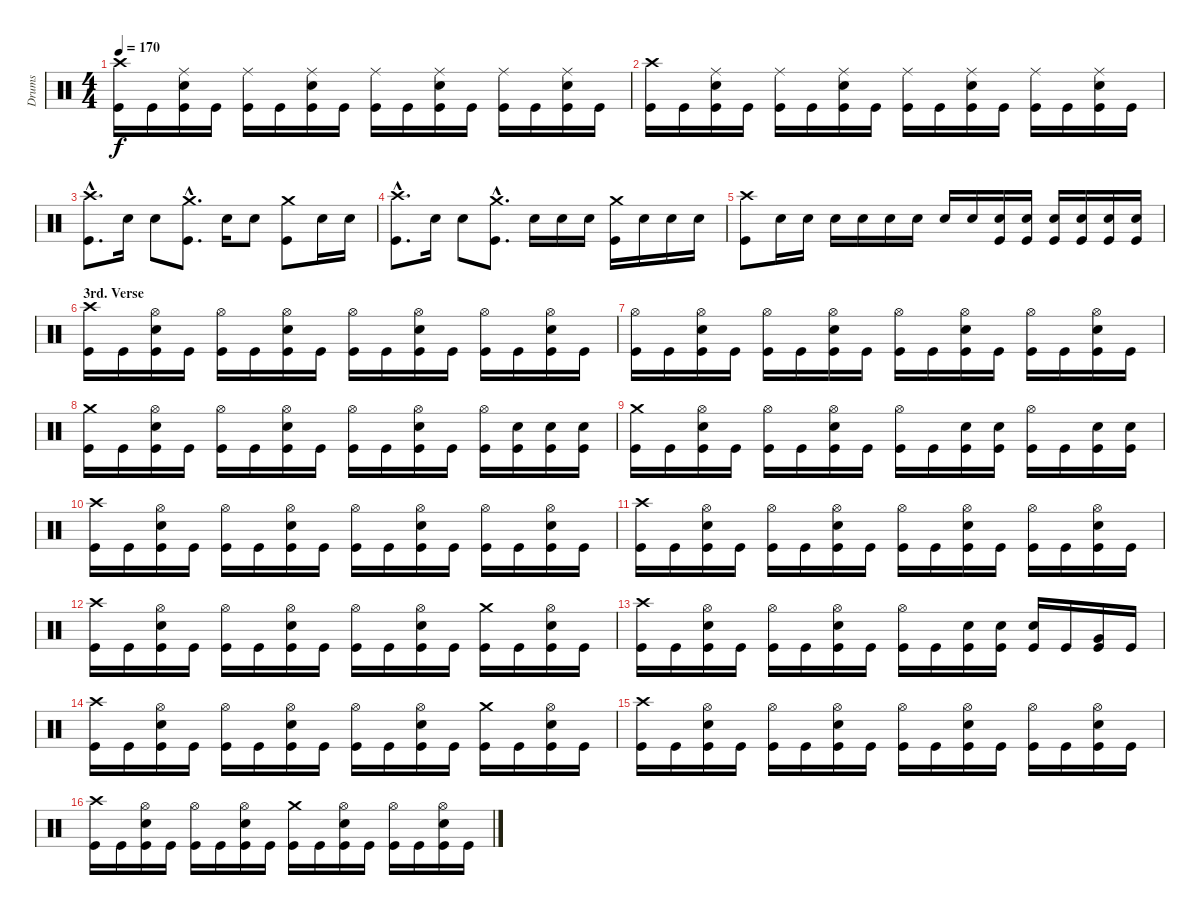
\track ("Drums" "Drums") {instrument percussion}
\staff {score}
\articulation defaults
\ts (4 4)
\tempo 170
\clef neutral
\ks c
("Crash high (hit)" "Kick (hit)").16{dy f} "Kick (hit)".16 ("Ride (middle)" "Electric Snare (hit)" "Kick (hit)").16 "Kick (hit)".16 ("Ride (middle)" "Kick (hit)").16 "Kick (hit)".16 ("Ride (middle)" "Electric Snare (hit)" "Kick (hit)").16 "Kick (hit)".16 ("Ride (middle)" "Kick (hit)").16 "Kick (hit)".16 ("Ride (middle)" "Electric Snare (hit)" "Kick (hit)").16 "Kick (hit)".16 ("Ride (middle)" "Kick (hit)").16 "Kick (hit)".16 ("Ride (middle)" "Electric Snare (hit)" "Kick (hit)").16 "Kick (hit)".16 |
("Crash high (hit)" "Kick (hit)").16 "Kick (hit)".16 ("Ride (middle)" "Electric Snare (hit)" "Kick (hit)").16 "Kick (hit)".16 ("Ride (middle)" "Kick (hit)").16 "Kick (hit)".16 ("Ride (middle)" "Electric Snare (hit)" "Kick (hit)").16 "Kick (hit)".16 ("Ride (middle)" "Kick (hit)").16 "Kick (hit)".16 ("Ride (middle)" "Electric Snare (hit)" "Kick (hit)").16 "Kick (hit)".16 ("Ride (middle)" "Kick (hit)").16 "Kick (hit)".16 ("Ride (middle)" "Electric Snare (hit)" "Kick (hit)").16 "Kick (hit)".16 |
("Crash high (hit)"{hac} "Kick (hit)"{hac}).8{d} "Electric Snare (hit)".16 "Electric Snare (hit)".8 ("Crash medium (hit)"{hac} "Kick (hit)"{hac}).8{d} "Electric Snare (hit)".16 "Electric Snare (hit)".8 ("Crash medium (hit)" "Kick (hit)").8 "Electric Snare (hit)".16 "Electric Snare (hit)".16 |
("Crash high (hit)"{hac} "Kick (hit)"{hac}).8{d} "Electric Snare (hit)".16 "Electric Snare (hit)".8 ("Crash medium (hit)"{hac} "Kick (hit)"{hac}).8{d} "Electric Snare (hit)".16 "Electric Snare (hit)".16 "Electric Snare (hit)".16 ("Crash medium (hit)" "Kick (hit)").16 "Electric Snare (hit)".16 "Electric Snare (hit)".16 "Electric Snare (hit)".16 |
("Crash high (hit)" "Kick (hit)").8 "Electric Snare (hit)".16 "Electric Snare (hit)".16 "Electric Snare (hit)".16 "Electric Snare (hit)".16 "Electric Snare (hit)".16 "Electric Snare (hit)".16 "Electric Snare (hit)".16 "Electric Snare (hit)".16 ("Electric Snare (hit)" "Kick (hit)").16 ("Electric Snare (hit)" "Kick (hit)").16 ("Electric Snare (hit)" "Kick (hit)").16 ("Electric Snare (hit)" "Kick (hit)").16 ("Electric Snare (hit)" "Kick (hit)").16 ("Electric Snare (hit)" "Kick (hit)").16 |
\section ("" "3rd. Verse")
("Crash high (hit)" "Kick (hit)").16 "Kick (hit)".16 ("Hi-Hat (open)" "Electric Snare (hit)" "Kick (hit)").16 "Kick (hit)".16 ("Hi-Hat (open)" "Kick (hit)").16 "Kick (hit)".16 ("Hi-Hat (open)" "Electric Snare (hit)" "Kick (hit)").16 "Kick (hit)".16 ("Hi-Hat (open)" "Kick (hit)").16 "Kick (hit)".16 ("Hi-Hat (open)" "Electric Snare (hit)" "Kick (hit)").16 "Kick (hit)".16 ("Hi-Hat (open)" "Kick (hit)").16 "Kick (hit)".16 ("Hi-Hat (open)" "Electric Snare (hit)" "Kick (hit)").16 "Kick (hit)".16 |
("Hi-Hat (open)" "Kick (hit)").16 "Kick (hit)".16 ("Hi-Hat (open)" "Electric Snare (hit)" "Kick (hit)").16 "Kick (hit)".16 ("Hi-Hat (open)" "Kick (hit)").16 "Kick (hit)".16 ("Hi-Hat (open)" "Electric Snare (hit)" "Kick (hit)").16 "Kick (hit)".16 ("Hi-Hat (open)" "Kick (hit)").16 "Kick (hit)".16 ("Hi-Hat (open)" "Electric Snare (hit)" "Kick (hit)").16 "Kick (hit)".16 ("Hi-Hat (open)" "Kick (hit)").16 "Kick (hit)".16 ("Hi-Hat (open)" "Electric Snare (hit)" "Kick (hit)").16 "Kick (hit)".16 |
("Crash medium (hit)" "Kick (hit)").16 "Kick (hit)".16 ("Hi-Hat (open)" "Electric Snare (hit)" "Kick (hit)").16 "Kick (hit)".16 ("Hi-Hat (open)" "Kick (hit)").16 "Kick (hit)".16 ("Hi-Hat (open)" "Electric Snare (hit)" "Kick (hit)").16 "Kick (hit)".16 ("Hi-Hat (open)" "Kick (hit)").16 "Kick (hit)".16 ("Hi-Hat (open)" "Electric Snare (hit)" "Kick (hit)").16 "Kick (hit)".16 ("Hi-Hat (open)" "Kick (hit)").16 ("Electric Snare (hit)" "Kick (hit)").16 ("Electric Snare (hit)" "Kick (hit)").16 ("Electric Snare (hit)" "Kick (hit)").16 |
("Crash medium (hit)" "Kick (hit)").16 "Kick (hit)".16 ("Hi-Hat (open)" "Electric Snare (hit)" "Kick (hit)").16 "Kick (hit)".16 ("Hi-Hat (open)" "Kick (hit)").16 "Kick (hit)".16 ("Hi-Hat (open)" "Electric Snare (hit)" "Kick (hit)").16 "Kick (hit)".16 ("Hi-Hat (open)" "Kick (hit)").16 "Kick (hit)".16 ("Electric Snare (hit)" "Kick (hit)").16 ("Electric Snare (hit)" "Kick (hit)").16 ("Hi-Hat (open)" "Kick (hit)").16 "Kick (hit)".16 ("Electric Snare (hit)" "Kick (hit)").16 ("Electric Snare (hit)" "Kick (hit)").16 |
("Crash high (hit)" "Kick (hit)").16 "Kick (hit)".16 ("Hi-Hat (open)" "Electric Snare (hit)" "Kick (hit)").16 "Kick (hit)".16 ("Hi-Hat (open)" "Kick (hit)").16 "Kick (hit)".16 ("Hi-Hat (open)" "Electric Snare (hit)" "Kick (hit)").16 "Kick (hit)".16 ("Hi-Hat (open)" "Kick (hit)").16 "Kick (hit)".16 ("Hi-Hat (open)" "Electric Snare (hit)" "Kick (hit)").16 "Kick (hit)".16 ("Hi-Hat (open)" "Kick (hit)").16 "Kick (hit)".16 ("Hi-Hat (open)" "Electric Snare (hit)" "Kick (hit)").16 "Kick (hit)".16 |
("Crash high (hit)" "Kick (hit)").16 "Kick (hit)".16 ("Hi-Hat (open)" "Electric Snare (hit)" "Kick (hit)").16 "Kick (hit)".16 ("Hi-Hat (open)" "Kick (hit)").16 "Kick (hit)".16 ("Hi-Hat (open)" "Electric Snare (hit)" "Kick (hit)").16 "Kick (hit)".16 ("Hi-Hat (open)" "Kick (hit)").16 "Kick (hit)".16 ("Hi-Hat (open)" "Electric Snare (hit)" "Kick (hit)").16 "Kick (hit)".16 ("Hi-Hat (open)" "Kick (hit)").16 "Kick (hit)".16 ("Hi-Hat (open)" "Electric Snare (hit)" "Kick (hit)").16 "Kick (hit)".16 |
("Crash high (hit)" "Kick (hit)").16 "Kick (hit)".16 ("Hi-Hat (open)" "Electric Snare (hit)" "Kick (hit)").16 "Kick (hit)".16 ("Hi-Hat (open)" "Kick (hit)").16 "Kick (hit)".16 ("Hi-Hat (open)" "Electric Snare (hit)" "Kick (hit)").16 "Kick (hit)".16 ("Hi-Hat (open)" "Kick (hit)").16 "Kick (hit)".16 ("Hi-Hat (open)" "Electric Snare (hit)" "Kick (hit)").16 "Kick (hit)".16 ("Crash medium (hit)" "Kick (hit)").16 "Kick (hit)".16 ("Hi-Hat (open)" "Electric Snare (hit)" "Kick (hit)").16 "Kick (hit)".16 |
("Crash high (hit)" "Kick (hit)").16 "Kick (hit)".16 ("Hi-Hat (open)" "Electric Snare (hit)" "Kick (hit)").16 "Kick (hit)".16 ("Hi-Hat (open)" "Kick (hit)").16 "Kick (hit)".16 ("Hi-Hat (open)" "Electric Snare (hit)" "Kick (hit)").16 "Kick (hit)".16 ("Hi-Hat (open)" "Kick (hit)").16 "Kick (hit)".16 ("Electric Snare (hit)" "Kick (hit)").16 ("Electric Snare (hit)" "Kick (hit)").16 ("Electric Snare (hit)" "Kick (hit)").16 "Kick (hit)".16 ("Very Low Tom (hit)" "Kick (hit)").16 "Kick (hit)".16 |
("Crash high (hit)" "Kick (hit)").16 "Kick (hit)".16 ("Hi-Hat (open)" "Electric Snare (hit)" "Kick (hit)").16 "Kick (hit)".16 ("Hi-Hat (open)" "Kick (hit)").16 "Kick (hit)".16 ("Hi-Hat (open)" "Electric Snare (hit)" "Kick (hit)").16 "Kick (hit)".16 ("Hi-Hat (open)" "Kick (hit)").16 "Kick (hit)".16 ("Hi-Hat (open)" "Electric Snare (hit)" "Kick (hit)").16 "Kick (hit)".16 ("Crash medium (hit)" "Kick (hit)").16 "Kick (hit)".16 ("Hi-Hat (open)" "Electric Snare (hit)" "Kick (hit)").16 "Kick (hit)".16 |
("Crash high (hit)" "Kick (hit)").16 "Kick (hit)".16 ("Hi-Hat (open)" "Electric Snare (hit)" "Kick (hit)").16 "Kick (hit)".16 ("Hi-Hat (open)" "Kick (hit)").16 "Kick (hit)".16 ("Hi-Hat (open)" "Electric Snare (hit)" "Kick (hit)").16 "Kick (hit)".16 ("Hi-Hat (open)" "Kick (hit)").16 "Kick (hit)".16 ("Hi-Hat (open)" "Electric Snare (hit)" "Kick (hit)").16 "Kick (hit)".16 ("Hi-Hat (open)" "Kick (hit)").16 "Kick (hit)".16 ("Hi-Hat (open)" "Electric Snare (hit)" "Kick (hit)").16 "Kick (hit)".16 |
("Crash high (hit)" "Kick (hit)").16 "Kick (hit)".16 ("Hi-Hat (open)" "Electric Snare (hit)" "Kick (hit)").16 "Kick (hit)".16 ("Hi-Hat (open)" "Kick (hit)").16 "Kick (hit)".16 ("Hi-Hat (open)" "Electric Snare (hit)" "Kick (hit)").16 "Kick (hit)".16 ("Crash medium (hit)" "Kick (hit)").16 "Kick (hit)".16 ("Hi-Hat (open)" "Electric Snare (hit)" "Kick (hit)").16 "Kick (hit)".16 ("Hi-Hat (open)" "Kick (hit)").16 "Kick (hit)".16 ("Hi-Hat (open)" "Electric Snare (hit)" "Kick (hit)").16 "Kick (hit)".16
